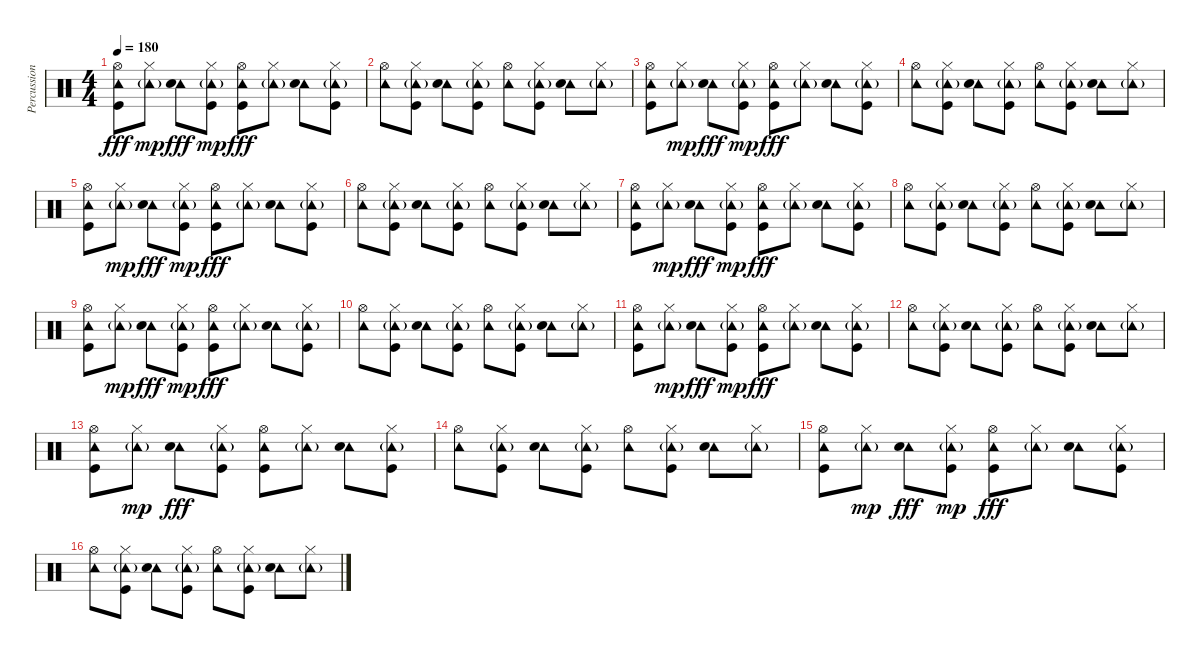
\track ("Percussion" "Percussion") {instrument percussion}
\staff {score}
\articulation defaults
\ts (4 4)
\tempo 180
\clef neutral
\ks c
("Tambourine (hit)" "Hi-Hat (open)" "Kick (hit)").8{dy fff} ("Tambourine (hit)"{g} "Hi-Hat (closed)").8{dy mp} ("Tambourine (hit)" "Electric Snare (hit)").8{dy fff} ("Tambourine (hit)"{g} "Hi-Hat (closed)" "Kick (hit)").8{dy mp} ("Tambourine (hit)" "Hi-Hat (open)" "Kick (hit)").8{dy fff} ("Tambourine (hit)"{g} "Hi-Hat (closed)").8 ("Tambourine (hit)" "Electric Snare (hit)").8 ("Tambourine (hit)"{g} "Hi-Hat (closed)" "Kick (hit)").8 |
("Tambourine (hit)" "Hi-Hat (open)").8 ("Tambourine (hit)"{g} "Hi-Hat (closed)" "Kick (hit)").8 ("Tambourine (hit)" "Electric Snare (hit)").8 ("Tambourine (hit)"{g} "Hi-Hat (closed)" "Kick (hit)").8 ("Tambourine (hit)" "Hi-Hat (open)").8 ("Tambourine (hit)"{g} "Hi-Hat (closed)" "Kick (hit)").8 ("Tambourine (hit)" "Electric Snare (hit)").8 ("Tambourine (hit)"{g} "Hi-Hat (closed)").8 |
("Tambourine (hit)" "Hi-Hat (open)" "Kick (hit)").8 ("Tambourine (hit)"{g} "Hi-Hat (closed)").8{dy mp} ("Tambourine (hit)" "Electric Snare (hit)").8{dy fff} ("Tambourine (hit)"{g} "Hi-Hat (closed)" "Kick (hit)").8{dy mp} ("Tambourine (hit)" "Hi-Hat (open)" "Kick (hit)").8{dy fff} ("Tambourine (hit)"{g} "Hi-Hat (closed)").8 ("Tambourine (hit)" "Electric Snare (hit)").8 ("Tambourine (hit)"{g} "Hi-Hat (closed)" "Kick (hit)").8 |
("Tambourine (hit)" "Hi-Hat (open)").8 ("Tambourine (hit)"{g} "Hi-Hat (closed)" "Kick (hit)").8 ("Tambourine (hit)" "Electric Snare (hit)").8 ("Tambourine (hit)"{g} "Hi-Hat (closed)" "Kick (hit)").8 ("Tambourine (hit)" "Hi-Hat (open)").8 ("Tambourine (hit)"{g} "Hi-Hat (closed)" "Kick (hit)").8 ("Tambourine (hit)" "Electric Snare (hit)").8 ("Tambourine (hit)"{g} "Hi-Hat (closed)").8 |
("Tambourine (hit)" "Hi-Hat (open)" "Kick (hit)").8 ("Tambourine (hit)"{g} "Hi-Hat (closed)").8{dy mp} ("Tambourine (hit)" "Electric Snare (hit)").8{dy fff} ("Tambourine (hit)"{g} "Hi-Hat (closed)" "Kick (hit)").8{dy mp} ("Tambourine (hit)" "Hi-Hat (open)" "Kick (hit)").8{dy fff} ("Tambourine (hit)"{g} "Hi-Hat (closed)").8 ("Tambourine (hit)" "Electric Snare (hit)").8 ("Tambourine (hit)"{g} "Hi-Hat (closed)" "Kick (hit)").8 |
("Tambourine (hit)" "Hi-Hat (open)").8 ("Tambourine (hit)"{g} "Hi-Hat (closed)" "Kick (hit)").8 ("Tambourine (hit)" "Electric Snare (hit)").8 ("Tambourine (hit)"{g} "Hi-Hat (closed)" "Kick (hit)").8 ("Tambourine (hit)" "Hi-Hat (open)").8 ("Tambourine (hit)"{g} "Hi-Hat (closed)" "Kick (hit)").8 ("Tambourine (hit)" "Electric Snare (hit)").8 ("Tambourine (hit)"{g} "Hi-Hat (closed)").8 |
("Tambourine (hit)" "Hi-Hat (open)" "Kick (hit)").8 ("Tambourine (hit)"{g} "Hi-Hat (closed)").8{dy mp} ("Tambourine (hit)" "Electric Snare (hit)").8{dy fff} ("Tambourine (hit)"{g} "Hi-Hat (closed)" "Kick (hit)").8{dy mp} ("Tambourine (hit)" "Hi-Hat (open)" "Kick (hit)").8{dy fff} ("Tambourine (hit)"{g} "Hi-Hat (closed)").8 ("Tambourine (hit)" "Electric Snare (hit)").8 ("Tambourine (hit)"{g} "Hi-Hat (closed)" "Kick (hit)").8 |
("Tambourine (hit)" "Hi-Hat (open)").8 ("Tambourine (hit)"{g} "Hi-Hat (closed)" "Kick (hit)").8 ("Tambourine (hit)" "Electric Snare (hit)").8 ("Tambourine (hit)"{g} "Hi-Hat (closed)" "Kick (hit)").8 ("Tambourine (hit)" "Hi-Hat (open)").8 ("Tambourine (hit)"{g} "Hi-Hat (closed)" "Kick (hit)").8 ("Tambourine (hit)" "Electric Snare (hit)").8 ("Tambourine (hit)"{g} "Hi-Hat (closed)").8 |
("Tambourine (hit)" "Hi-Hat (open)" "Kick (hit)").8 ("Tambourine (hit)"{g} "Hi-Hat (closed)").8{dy mp} ("Tambourine (hit)" "Electric Snare (hit)").8{dy fff} ("Tambourine (hit)"{g} "Hi-Hat (closed)" "Kick (hit)").8{dy mp} ("Tambourine (hit)" "Hi-Hat (open)" "Kick (hit)").8{dy fff} ("Tambourine (hit)"{g} "Hi-Hat (closed)").8 ("Tambourine (hit)" "Electric Snare (hit)").8 ("Tambourine (hit)"{g} "Hi-Hat (closed)" "Kick (hit)").8 |
("Tambourine (hit)" "Hi-Hat (open)").8 ("Tambourine (hit)"{g} "Hi-Hat (closed)" "Kick (hit)").8 ("Tambourine (hit)" "Electric Snare (hit)").8 ("Tambourine (hit)"{g} "Hi-Hat (closed)" "Kick (hit)").8 ("Tambourine (hit)" "Hi-Hat (open)").8 ("Tambourine (hit)"{g} "Hi-Hat (closed)" "Kick (hit)").8 ("Tambourine (hit)" "Electric Snare (hit)").8 ("Tambourine (hit)"{g} "Hi-Hat (closed)").8 |
("Tambourine (hit)" "Hi-Hat (open)" "Kick (hit)").8 ("Tambourine (hit)"{g} "Hi-Hat (closed)").8{dy mp} ("Tambourine (hit)" "Electric Snare (hit)").8{dy fff} ("Tambourine (hit)"{g} "Hi-Hat (closed)" "Kick (hit)").8{dy mp} ("Tambourine (hit)" "Hi-Hat (open)" "Kick (hit)").8{dy fff} ("Tambourine (hit)"{g} "Hi-Hat (closed)").8 ("Tambourine (hit)" "Electric Snare (hit)").8 ("Tambourine (hit)"{g} "Hi-Hat (closed)" "Kick (hit)").8 |
("Tambourine (hit)" "Hi-Hat (open)").8 ("Tambourine (hit)"{g} "Hi-Hat (closed)" "Kick (hit)").8 ("Tambourine (hit)" "Electric Snare (hit)").8 ("Tambourine (hit)"{g} "Hi-Hat (closed)" "Kick (hit)").8 ("Tambourine (hit)" "Hi-Hat (open)").8 ("Tambourine (hit)"{g} "Hi-Hat (closed)" "Kick (hit)").8 ("Tambourine (hit)" "Electric Snare (hit)").8 ("Tambourine (hit)"{g} "Hi-Hat (closed)").8 |
("Tambourine (hit)" "Hi-Hat (open)" "Kick (hit)").8 ("Tambourine (hit)"{g} "Hi-Hat (closed)").8{dy mp} ("Tambourine (hit)" "Electric Snare (hit)").8{dy fff} ("Tambourine (hit)"{g} "Hi-Hat (closed)" "Kick (hit)").8 ("Tambourine (hit)" "Hi-Hat (open)" "Kick (hit)").8 ("Tambourine (hit)"{g} "Hi-Hat (closed)").8 ("Tambourine (hit)" "Electric Snare (hit)").8 ("Tambourine (hit)"{g} "Hi-Hat (closed)" "Kick (hit)").8 |
("Tambourine (hit)" "Hi-Hat (open)").8 ("Tambourine (hit)"{g} "Hi-Hat (closed)" "Kick (hit)").8 ("Tambourine (hit)" "Electric Snare (hit)").8 ("Tambourine (hit)"{g} "Hi-Hat (closed)" "Kick (hit)").8 ("Tambourine (hit)" "Hi-Hat (open)").8 ("Tambourine (hit)"{g} "Hi-Hat (closed)" "Kick (hit)").8 ("Tambourine (hit)" "Electric Snare (hit)").8 ("Tambourine (hit)"{g} "Hi-Hat (closed)").8 |
("Tambourine (hit)" "Hi-Hat (open)" "Kick (hit)").8 ("Tambourine (hit)"{g} "Hi-Hat (closed)").8{dy mp} ("Tambourine (hit)" "Electric Snare (hit)").8{dy fff} ("Tambourine (hit)"{g} "Hi-Hat (closed)" "Kick (hit)").8{dy mp} ("Tambourine (hit)" "Hi-Hat (open)" "Kick (hit)").8{dy fff} ("Tambourine (hit)"{g} "Hi-Hat (closed)").8 ("Tambourine (hit)" "Electric Snare (hit)").8 ("Tambourine (hit)"{g} "Hi-Hat (closed)" "Kick (hit)").8 |
("Tambourine (hit)" "Hi-Hat (open)").8 ("Tambourine (hit)"{g} "Hi-Hat (closed)" "Kick (hit)").8 ("Tambourine (hit)" "Electric Snare (hit)").8 ("Tambourine (hit)"{g} "Hi-Hat (closed)" "Kick (hit)").8 ("Tambourine (hit)" "Hi-Hat (open)").8 ("Tambourine (hit)"{g} "Hi-Hat (closed)" "Kick (hit)").8 ("Tambourine (hit)" "Electric Snare (hit)").8 ("Tambourine (hit)"{g} "Hi-Hat (closed)").8
